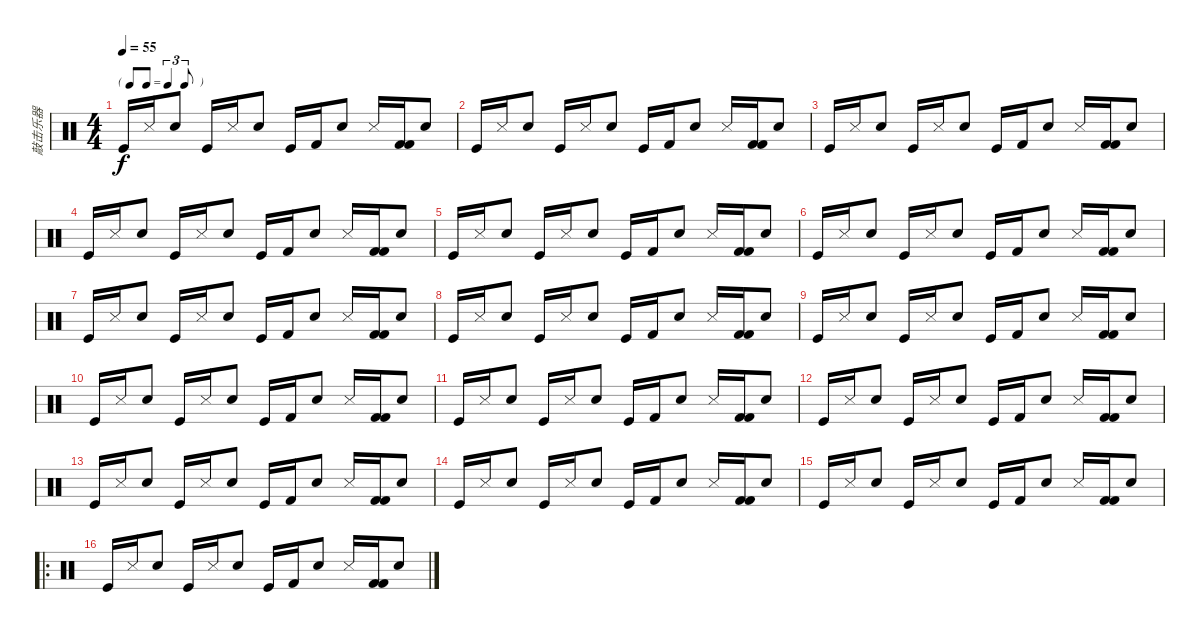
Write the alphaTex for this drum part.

\track ("敲击乐器" "敲击乐器") {instrument percussion}
\staff {score}
\articulation defaults
\ts (4 4)
\tf triplet8th
\tempo 55
\clef neutral
\ks c "Kick (hit)".16{dy f} "Snare (side stick) 3".16 "Snare (hit) 2".8 "Kick (hit)".16 "Snare (side stick) 3".16 "Snare (hit) 2".8 "Kick (hit)".16 "Kick (hit) 2".16 "Snare (hit) 2".8 "Snare (side stick) 3".16
("Kick (hit) 2" "Kick (hit) 2").16 "Snare (hit) 2".8 |
"Kick (hit)".16 "Snare (side stick) 3".16 "Snare (hit) 2".8 "Kick (hit)".16 "Snare (side stick) 3".16 "Snare (hit) 2".8 "Kick (hit)".16 "Kick (hit) 2".16 "Snare (hit) 2".8 "Snare (side stick) 3".16 ("Kick (hit) 2" "Kick (hit) 2").16 "Snare (hit) 2".8 |
"Kick (hit)".16 "Snare (side stick) 3".16 "Snare (hit) 2".8 "Kick (hit)".16 "Snare (side stick) 3".16 "Snare (hit) 2".8 "Kick (hit)".16 "Kick (hit) 2".16 "Snare (hit) 2".8 "Snare (side stick) 3".16 ("Kick (hit) 2" "Kick (hit) 2").16 "Snare (hit) 2".8 |
"Kick (hit)".16 "Snare (side stick) 3".16 "Snare (hit) 2".8 "Kick (hit)".16 "Snare (side stick) 3".16 "Snare (hit) 2".8 "Kick (hit)".16 "Kick (hit) 2".16 "Snare (hit) 2".8 "Snare (side stick) 3".16 ("Kick (hit) 2" "Kick (hit) 2").16 "Snare (hit) 2".8 |
"Kick (hit)".16 "Snare (side stick) 3".16 "Snare (hit) 2".8 "Kick (hit)".16 "Snare (side stick) 3".16 "Snare (hit) 2".8 "Kick (hit)".16 "Kick (hit) 2".16 "Snare (hit) 2".8 "Snare (side stick) 3".16 ("Kick (hit) 2" "Kick (hit) 2").16 "Snare (hit) 2".8 |
"Kick (hit)".16 "Snare (side stick) 3".16 "Snare (hit) 2".8 "Kick (hit)".16 "Snare (side stick) 3".16 "Snare (hit) 2".8 "Kick (hit)".16 "Kick (hit) 2".16 "Snare (hit) 2".8 "Snare (side stick) 3".16 ("Kick (hit) 2" "Kick (hit) 2").16 "Snare (hit) 2".8 |
"Kick (hit)".16 "Snare (side stick) 3".16 "Snare (hit) 2".8 "Kick (hit)".16 "Snare (side stick) 3".16 "Snare (hit) 2".8 "Kick (hit)".16 "Kick (hit) 2".16 "Snare (hit) 2".8 "Snare (side stick) 3".16 ("Kick (hit) 2" "Kick (hit) 2").16 "Snare (hit) 2".8 |
"Kick (hit)".16 "Snare (side stick) 3".16 "Snare (hit) 2".8 "Kick (hit)".16 "Snare (side stick) 3".16 "Snare (hit) 2".8 "Kick (hit)".16 "Kick (hit) 2".16 "Snare (hit) 2".8 "Snare (side stick) 3".16 ("Kick (hit) 2" "Kick (hit) 2").16 "Snare (hit) 2".8 |
"Kick (hit)".16 "Snare (side stick) 3".16 "Snare (hit) 2".8 "Kick (hit)".16 "Snare (side stick) 3".16 "Snare (hit) 2".8 "Kick (hit)".16 "Kick (hit) 2".16 "Snare (hit) 2".8 "Snare (side stick) 3".16 ("Kick (hit) 2" "Kick (hit) 2").16 "Snare (hit) 2".8 |
"Kick (hit)".16 "Snare (side stick) 3".16 "Snare (hit) 2".8 "Kick (hit)".16 "Snare (side stick) 3".16 "Snare (hit) 2".8 "Kick (hit)".16 "Kick (hit) 2".16 "Snare (hit) 2".8 "Snare (side stick) 3".16 ("Kick (hit) 2" "Kick (hit) 2").16 "Snare (hit) 2".8 |
"Kick (hit)".16 "Snare (side stick) 3".16 "Snare (hit) 2".8 "Kick (hit)".16 "Snare (side stick) 3".16 "Snare (hit) 2".8 "Kick (hit)".16 "Kick (hit) 2".16 "Snare (hit) 2".8 "Snare (side stick) 3".16 ("Kick (hit) 2" "Kick (hit) 2").16 "Snare (hit) 2".8 |
"Kick (hit)".16 "Snare (side stick) 3".16 "Snare (hit) 2".8 "Kick (hit)".16 "Snare (side stick) 3".16 "Snare (hit) 2".8 "Kick (hit)".16 "Kick (hit) 2".16 "Snare (hit) 2".8 "Snare (side stick) 3".16 ("Kick (hit) 2" "Kick (hit) 2").16 "Snare (hit) 2".8 |
"Kick (hit)".16 "Snare (side stick) 3".16 "Snare (hit) 2".8 "Kick (hit)".16 "Snare (side stick) 3".16 "Snare (hit) 2".8 "Kick (hit)".16 "Kick (hit) 2".16 "Snare (hit) 2".8 "Snare (side stick) 3".16 ("Kick (hit) 2" "Kick (hit) 2").16 "Snare (hit) 2".8 |
"Kick (hit)".16 "Snare (side stick) 3".16 "Snare (hit) 2".8 "Kick (hit)".16 "Snare (side stick) 3".16 "Snare (hit) 2".8 "Kick (hit)".16 "Kick (hit) 2".16 "Snare (hit) 2".8 "Snare (side stick) 3".16 ("Kick (hit) 2" "Kick (hit) 2").16 "Snare (hit) 2".8 |
"Kick (hit)".16 "Snare (side stick) 3".16 "Snare (hit) 2".8 "Kick (hit)".16 "Snare (side stick) 3".16 "Snare (hit) 2".8 "Kick (hit)".16 "Kick (hit) 2".16 "Snare (hit) 2".8 "Snare (side stick) 3".16 ("Kick (hit) 2" "Kick (hit) 2").16 "Snare (hit) 2".8 |
\ro "Kick (hit)".16 "Snare (side stick) 3".16 "Snare (hit) 2".8 "Kick (hit)".16 "Snare (side stick) 3".16 "Snare (hit) 2".8 "Kick (hit)".16 "Kick (hit) 2".16 "Snare (hit) 2".8 "Snare (side stick) 3".16
("Kick (hit) 2" "Kick (hit) 2").16 "Snare (hit) 2".8
